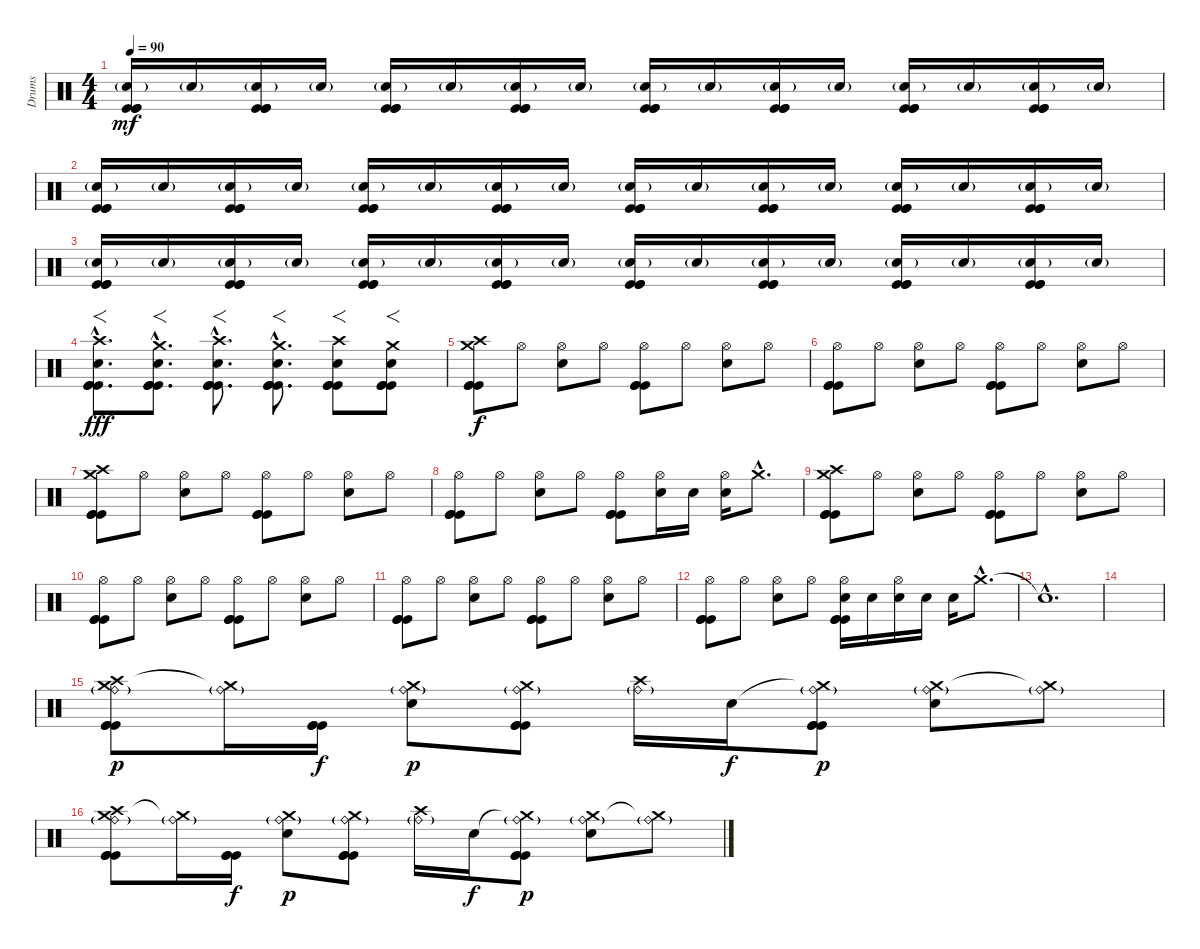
\track ("Drums" "Drums") {instrument percussion}
\staff {score}
\articulation defaults
\ts (4 4)
\tempo 90
\clef neutral
\ks c
("Electric Snare (hit)"{g} "Kick (hit)" "Kick (hit)" "Kick (hit)").16{dy mf} "Electric Snare (hit)"{g}.16 ("Electric Snare (hit)"{g} "Kick (hit)" "Kick (hit)" "Kick (hit)").16 "Electric Snare (hit)"{g}.16 ("Electric Snare (hit)"{g} "Kick (hit)" "Kick (hit)" "Kick (hit)").16 "Electric Snare (hit)"{g}.16 ("Electric Snare (hit)"{g} "Kick (hit)" "Kick (hit)" "Kick (hit)").16 "Electric Snare (hit)"{g}.16 ("Electric Snare (hit)"{g} "Kick (hit)" "Kick (hit)" "Kick (hit)").16 "Electric Snare (hit)"{g}.16 ("Electric Snare (hit)"{g} "Kick (hit)" "Kick (hit)" "Kick (hit)").16 "Electric Snare (hit)"{g}.16 ("Electric Snare (hit)"{g} "Kick (hit)" "Kick (hit)" "Kick (hit)").16 "Electric Snare (hit)"{g}.16 ("Electric Snare (hit)"{g} "Kick (hit)" "Kick (hit)" "Kick (hit)").16 "Electric Snare (hit)"{g}.16 |
("Electric Snare (hit)"{g} "Kick (hit)" "Kick (hit)" "Kick (hit)").16 "Electric Snare (hit)"{g}.16 ("Electric Snare (hit)"{g} "Kick (hit)" "Kick (hit)" "Kick (hit)").16 "Electric Snare (hit)"{g}.16 ("Electric Snare (hit)"{g} "Kick (hit)" "Kick (hit)" "Kick (hit)").16 "Electric Snare (hit)"{g}.16 ("Electric Snare (hit)"{g} "Kick (hit)" "Kick (hit)" "Kick (hit)").16 "Electric Snare (hit)"{g}.16 ("Electric Snare (hit)"{g} "Kick (hit)" "Kick (hit)" "Kick (hit)").16 "Electric Snare (hit)"{g}.16 ("Electric Snare (hit)"{g} "Kick (hit)" "Kick (hit)" "Kick (hit)").16 "Electric Snare (hit)"{g}.16 ("Electric Snare (hit)"{g} "Kick (hit)" "Kick (hit)" "Kick (hit)").16 "Electric Snare (hit)"{g}.16 ("Electric Snare (hit)"{g} "Kick (hit)" "Kick (hit)" "Kick (hit)").16 "Electric Snare (hit)"{g}.16 |
("Electric Snare (hit)"{g} "Kick (hit)" "Kick (hit)" "Kick (hit)").16 "Electric Snare (hit)"{g}.16 ("Electric Snare (hit)"{g} "Kick (hit)" "Kick (hit)" "Kick (hit)").16 "Electric Snare (hit)"{g}.16 ("Electric Snare (hit)"{g} "Kick (hit)" "Kick (hit)" "Kick (hit)").16 "Electric Snare (hit)"{g}.16 ("Electric Snare (hit)"{g} "Kick (hit)" "Kick (hit)" "Kick (hit)").16 "Electric Snare (hit)"{g}.16 ("Electric Snare (hit)"{g} "Kick (hit)" "Kick (hit)" "Kick (hit)").16 "Electric Snare (hit)"{g}.16 ("Electric Snare (hit)"{g} "Kick (hit)" "Kick (hit)" "Kick (hit)").16 "Electric Snare (hit)"{g}.16 ("Electric Snare (hit)"{g} "Kick (hit)" "Kick (hit)" "Kick (hit)").16 "Electric Snare (hit)"{g}.16 ("Electric Snare (hit)"{g} "Kick (hit)" "Kick (hit)" "Kick (hit)").16 "Electric Snare (hit)"{g}.16 |
("Crash high (hit)"{hac} "Electric Snare (hit)"{tr (40 64) hac} "Kick (hit)"{hac} "Kick (hit)"{hac} "Kick (hit)"{hac}).8{f d dy fff} ("Crash medium (hit)"{hac} "Electric Snare (hit)"{tr (40 64) hac} "Kick (hit)"{hac} "Kick (hit)"{hac} "Kick (hit)"{hac}).8{f d} ("Crash high (hit)"{hac} "Electric Snare (hit)"{tr (40 64) hac} "Kick (hit)"{hac} "Kick (hit)"{hac} "Kick (hit)"{hac}).8{f d} ("Crash medium (hit)"{hac} "Electric Snare (hit)"{tr (40 64) hac} "Kick (hit)"{hac} "Kick (hit)"{hac} "Kick (hit)"{hac}).8{f d} ("Crash high (hit)" "Electric Snare (hit)"{tr (40 64)} "Kick (hit)" "Kick (hit)" "Kick (hit)").8{f} ("Crash medium (hit)" "Electric Snare (hit)"{tr (40 64)} "Kick (hit)" "Kick (hit)" "Kick (hit)").8{f} |
("Crash medium (hit)" "Crash high (hit)" "Kick (hit)" "Kick (hit)" "Kick (hit)").8{dy f} "Hi-Hat (open)".8 ("Hi-Hat (open)" "Electric Snare (hit)").8 "Hi-Hat (open)".8 ("Hi-Hat (open)" "Kick (hit)" "Kick (hit)" "Kick (hit)").8 "Hi-Hat (open)".8 ("Hi-Hat (open)" "Electric Snare (hit)").8 "Hi-Hat (open)".8 |
("Hi-Hat (open)" "Kick (hit)" "Kick (hit)" "Kick (hit)").8 "Hi-Hat (open)".8 ("Hi-Hat (open)" "Electric Snare (hit)").8 "Hi-Hat (open)".8 ("Hi-Hat (open)" "Kick (hit)" "Kick (hit)" "Kick (hit)").8 "Hi-Hat (open)".8 ("Hi-Hat (open)" "Electric Snare (hit)").8 "Hi-Hat (open)".8 |
("Crash medium (hit)" "Crash high (hit)" "Kick (hit)" "Kick (hit)" "Kick (hit)").8 "Hi-Hat (open)".8 ("Hi-Hat (open)" "Electric Snare (hit)").8 "Hi-Hat (open)".8 ("Hi-Hat (open)" "Kick (hit)" "Kick (hit)" "Kick (hit)").8 "Hi-Hat (open)".8 ("Hi-Hat (open)" "Electric Snare (hit)").8 "Hi-Hat (open)".8 |
("Hi-Hat (open)" "Kick (hit)" "Kick (hit)" "Kick (hit)").8 "Hi-Hat (open)".8 ("Hi-Hat (open)" "Electric Snare (hit)").8 "Hi-Hat (open)".8 ("Hi-Hat (open)" "Kick (hit)" "Kick (hit)" "Kick (hit)").8 ("Hi-Hat (open)" "Electric Snare (hit)").16 "Electric Snare (hit)".16 ("Hi-Hat (open)" "Electric Snare (hit)").16 "Crash medium (hit)"{hac}.8{d} |
("Crash medium (hit)" "Crash high (hit)" "Kick (hit)" "Kick (hit)" "Kick (hit)").8 "Hi-Hat (open)".8 ("Hi-Hat (open)" "Electric Snare (hit)").8 "Hi-Hat (open)".8 ("Hi-Hat (open)" "Kick (hit)" "Kick (hit)" "Kick (hit)").8 "Hi-Hat (open)".8 ("Hi-Hat (open)" "Electric Snare (hit)").8 "Hi-Hat (open)".8 |
("Hi-Hat (open)" "Kick (hit)" "Kick (hit)" "Kick (hit)").8 "Hi-Hat (open)".8 ("Hi-Hat (open)" "Electric Snare (hit)").8 "Hi-Hat (open)".8 ("Hi-Hat (open)" "Kick (hit)" "Kick (hit)" "Kick (hit)").8 "Hi-Hat (open)".8 ("Hi-Hat (open)" "Electric Snare (hit)").8 "Hi-Hat (open)".8 |
("Hi-Hat (open)" "Kick (hit)" "Kick (hit)" "Kick (hit)").8 "Hi-Hat (open)".8 ("Hi-Hat (open)" "Electric Snare (hit)").8 "Hi-Hat (open)".8 ("Hi-Hat (open)" "Kick (hit)" "Kick (hit)" "Kick (hit)").8 "Hi-Hat (open)".8 ("Hi-Hat (open)" "Electric Snare (hit)").8 "Hi-Hat (open)".8 |
("Hi-Hat (open)" "Kick (hit)" "Kick (hit)" "Kick (hit)").8 "Hi-Hat (open)".8 ("Hi-Hat (open)" "Electric Snare (hit)").8 "Hi-Hat (open)".8 ("Hi-Hat (open)" "Electric Snare (hit)" "Kick (hit)" "Kick (hit)" "Kick (hit)").16 "Electric Snare (hit)".16 ("Hi-Hat (open)" "Electric Snare (hit)").16 "Electric Snare (hit)".16 "Electric Snare (hit)".16 "Crash medium (hit)"{hac}.8{d} |
"Snare (hit)"{hac t}.1{d} |
|
("Crash high (hit)" "Crash medium (hit)" "Ride (bell)"{g} "Kick (hit)" "Kick (hit)" "Kick (hit)").8{dy p} ("Crash medium (hit)"{t} "Ride (bell)"{g}).16 ("Kick (hit)" "Kick (hit)" "Kick (hit)").16{dy f} ("Crash medium (hit)" "Ride (bell)"{g} "Electric Snare (hit)").8{dy p} ("Crash medium (hit)" "Ride (bell)"{g} "Kick (hit)" "Kick (hit)" "Kick (hit)").8 ("Crash high (hit)" "Ride (bell)"{g}).16 "Electric Snare (hit)".16{dy f} ("Crash medium (hit)"{t} "Ride (bell)"{g} "Kick (hit)" "Kick (hit)" "Kick (hit)").8{dy p} ("Crash medium (hit)" "Ride (bell)"{g} "Electric Snare (hit)").8 ("Crash medium (hit)"{t} "Ride (bell)"{g}).8 |
("Crash high (hit)" "Crash medium (hit)" "Ride (bell)"{g} "Kick (hit)" "Kick (hit)" "Kick (hit)").8 ("Crash medium (hit)"{t} "Ride (bell)"{g}).16 ("Kick (hit)" "Kick (hit)" "Kick (hit)").16{dy f} ("Crash medium (hit)" "Ride (bell)"{g} "Electric Snare (hit)").8{dy p} ("Crash medium (hit)" "Ride (bell)"{g} "Kick (hit)" "Kick (hit)" "Kick (hit)").8 ("Crash high (hit)" "Ride (bell)"{g}).16 "Electric Snare (hit)".16{dy f} ("Crash medium (hit)"{t} "Ride (bell)"{g} "Kick (hit)" "Kick (hit)" "Kick (hit)").8{dy p} ("Crash medium (hit)" "Ride (bell)"{g} "Electric Snare (hit)").8 ("Crash medium (hit)"{t} "Ride (bell)"{g}).8
